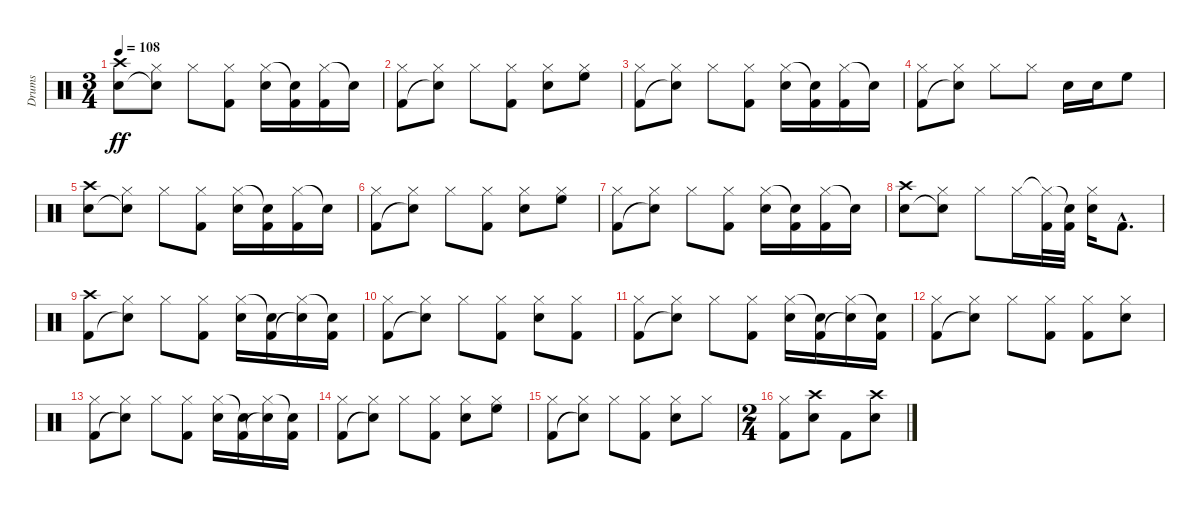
\track ("Drums" "Drums") {instrument percussion}
\staff {score}
\articulation defaults
\ts (3 4)
\tempo 108
\clef neutral
\ks c
("Crash high (hit)" "Snare (hit) 2").8{dy ff} ("Hi-Hat (closed)" "Snare (hit)"{t}).8 "Hi-Hat (closed)".8 ("Hi-Hat (closed)" "Kick (hit) 2").8 ("Hi-Hat (closed)" "Snare (hit) 2").16 ("Snare (hit)"{t} "Kick (hit) 2").16 ("Hi-Hat (closed)" "Kick (hit) 2").16 "Snare (hit)"{t}.16 |
("Hi-Hat (closed)" "Kick (hit) 2").8 ("Hi-Hat (closed)" "Snare (hit)"{t}).8 "Hi-Hat (closed)".8 ("Hi-Hat (closed)" "Kick (hit) 2").8 ("Hi-Hat (closed)" "Snare (hit) 2").8 ("Hi-Hat (closed)" "High Floor Tom (hit)").8 |
("Hi-Hat (closed)" "Kick (hit) 2").8 ("Hi-Hat (closed)" "Snare (hit)"{t}).8 "Hi-Hat (closed)".8 ("Hi-Hat (closed)" "Kick (hit) 2").8 ("Hi-Hat (closed)" "Snare (hit) 2").16 ("Snare (hit)"{t} "Kick (hit) 2").16 ("Hi-Hat (closed)" "Kick (hit) 2").16 "Snare (hit)"{t}.16 |
("Hi-Hat (closed)" "Kick (hit) 2").8 ("Hi-Hat (closed)" "Snare (hit)"{t}).8 "Hi-Hat (closed)".8 "Hi-Hat (closed)".8 "Snare (hit) 2".16 "Snare (hit) 2".16 "High Floor Tom (hit)".8 |
("Crash high (hit)" "Snare (hit) 2").8 ("Hi-Hat (closed)" "Snare (hit)"{t}).8 "Hi-Hat (closed)".8 ("Hi-Hat (closed)" "Kick (hit) 2").8 ("Hi-Hat (closed)" "Snare (hit) 2").16 ("Snare (hit)"{t} "Kick (hit) 2").16 ("Hi-Hat (closed)" "Kick (hit) 2").16 "Snare (hit)"{t}.16 |
("Hi-Hat (closed)" "Kick (hit) 2").8 ("Hi-Hat (closed)" "Snare (hit)"{t}).8 "Hi-Hat (closed)".8 ("Hi-Hat (closed)" "Kick (hit) 2").8 ("Hi-Hat (closed)" "Snare (hit) 2").8 ("Hi-Hat (closed)" "High Floor Tom (hit)").8 |
("Hi-Hat (closed)" "Kick (hit) 2").8 ("Hi-Hat (closed)" "Snare (hit)"{t}).8 "Hi-Hat (closed)".8 ("Hi-Hat (closed)" "Kick (hit) 2").8 ("Hi-Hat (closed)" "Snare (hit) 2").16 ("Snare (hit)"{t} "Kick (hit) 2").16 ("Hi-Hat (closed)" "Kick (hit) 2").16 "Snare (hit)"{t}.16 |
("Crash high (hit)" "Snare (hit) 2").8 ("Hi-Hat (closed)" "Snare (hit)"{t}).8 "Hi-Hat (closed)".8 "Hi-Hat (closed)".16 ("Hi-Hat (closed)"{t} "Kick (hit) 2").32 ("Snare (hit)"{t} "Kick (hit) 2").32 ("Hi-Hat (closed)" "Snare (hit) 2").16 "Kick (hit) 2"{hac}.8{d} |
("Crash high (hit)" "Kick (hit) 2").8 ("Hi-Hat (closed)" "Snare (hit)"{t}).8 "Hi-Hat (closed)".8 ("Hi-Hat (closed)" "Kick (hit) 2").8 ("Hi-Hat (closed)" "Snare (hit) 2").16 ("Snare (hit)"{t} "Kick (hit) 2").16 ("Hi-Hat (closed)" "Snare (hit)"{t}).16 ("Snare (hit)"{t} "Kick (hit) 2").16 |
("Hi-Hat (closed)" "Kick (hit) 2").8 ("Hi-Hat (closed)" "Snare (hit)"{t}).8 "Hi-Hat (closed)".8 ("Hi-Hat (closed)" "Kick (hit) 2").8 ("Hi-Hat (closed)" "Snare (hit) 2").8 ("Hi-Hat (closed)" "Kick (hit) 2").8 |
("Hi-Hat (closed)" "Kick (hit) 2").8 ("Hi-Hat (closed)" "Snare (hit)"{t}).8 "Hi-Hat (closed)".8 ("Hi-Hat (closed)" "Kick (hit) 2").8 ("Hi-Hat (closed)" "Snare (hit) 2").16 ("Snare (hit)"{t} "Kick (hit) 2").16 ("Hi-Hat (closed)" "Snare (hit)"{t}).16 ("Snare (hit)"{t} "Kick (hit) 2").16 |
("Hi-Hat (closed)" "Kick (hit) 2").8 ("Hi-Hat (closed)" "Snare (hit)"{t}).8 "Hi-Hat (closed)".8 ("Hi-Hat (closed)" "Kick (hit) 2").8 ("Hi-Hat (closed)" "Kick (hit) 2").8 ("Hi-Hat (closed)" "Snare (hit) 2").8 |
("Hi-Hat (closed)" "Kick (hit) 2").8 ("Hi-Hat (closed)" "Snare (hit)"{t}).8 "Hi-Hat (closed)".8 ("Hi-Hat (closed)" "Kick (hit) 2").8 ("Hi-Hat (closed)" "Snare (hit) 2").16 ("Snare (hit)"{t} "Kick (hit) 2").16 ("Hi-Hat (closed)" "Snare (hit)"{t}).16 ("Snare (hit)"{t} "Kick (hit) 2").16 |
("Hi-Hat (closed)" "Kick (hit) 2").8 ("Hi-Hat (closed)" "Snare (hit)"{t}).8 "Hi-Hat (closed)".8 ("Hi-Hat (closed)" "Kick (hit) 2").8 ("Hi-Hat (closed)" "Snare (hit) 2").8 ("Hi-Hat (closed)" "High Floor Tom (hit)").8 |
("Hi-Hat (closed)" "Kick (hit) 2").8 ("Hi-Hat (closed)" "Snare (hit)"{t}).8 "Hi-Hat (closed)".8 ("Hi-Hat (closed)" "Kick (hit) 2").8 ("Hi-Hat (closed)" "Snare (hit) 2").8 "Hi-Hat (closed)".8 |
\ts (2 4)
("Hi-Hat (closed)" "Kick (hit) 2").8 ("Crash high (hit)" "Snare (hit) 2").8 "Kick (hit) 2".8 ("Crash high (hit)" "Snare (hit) 2").8
